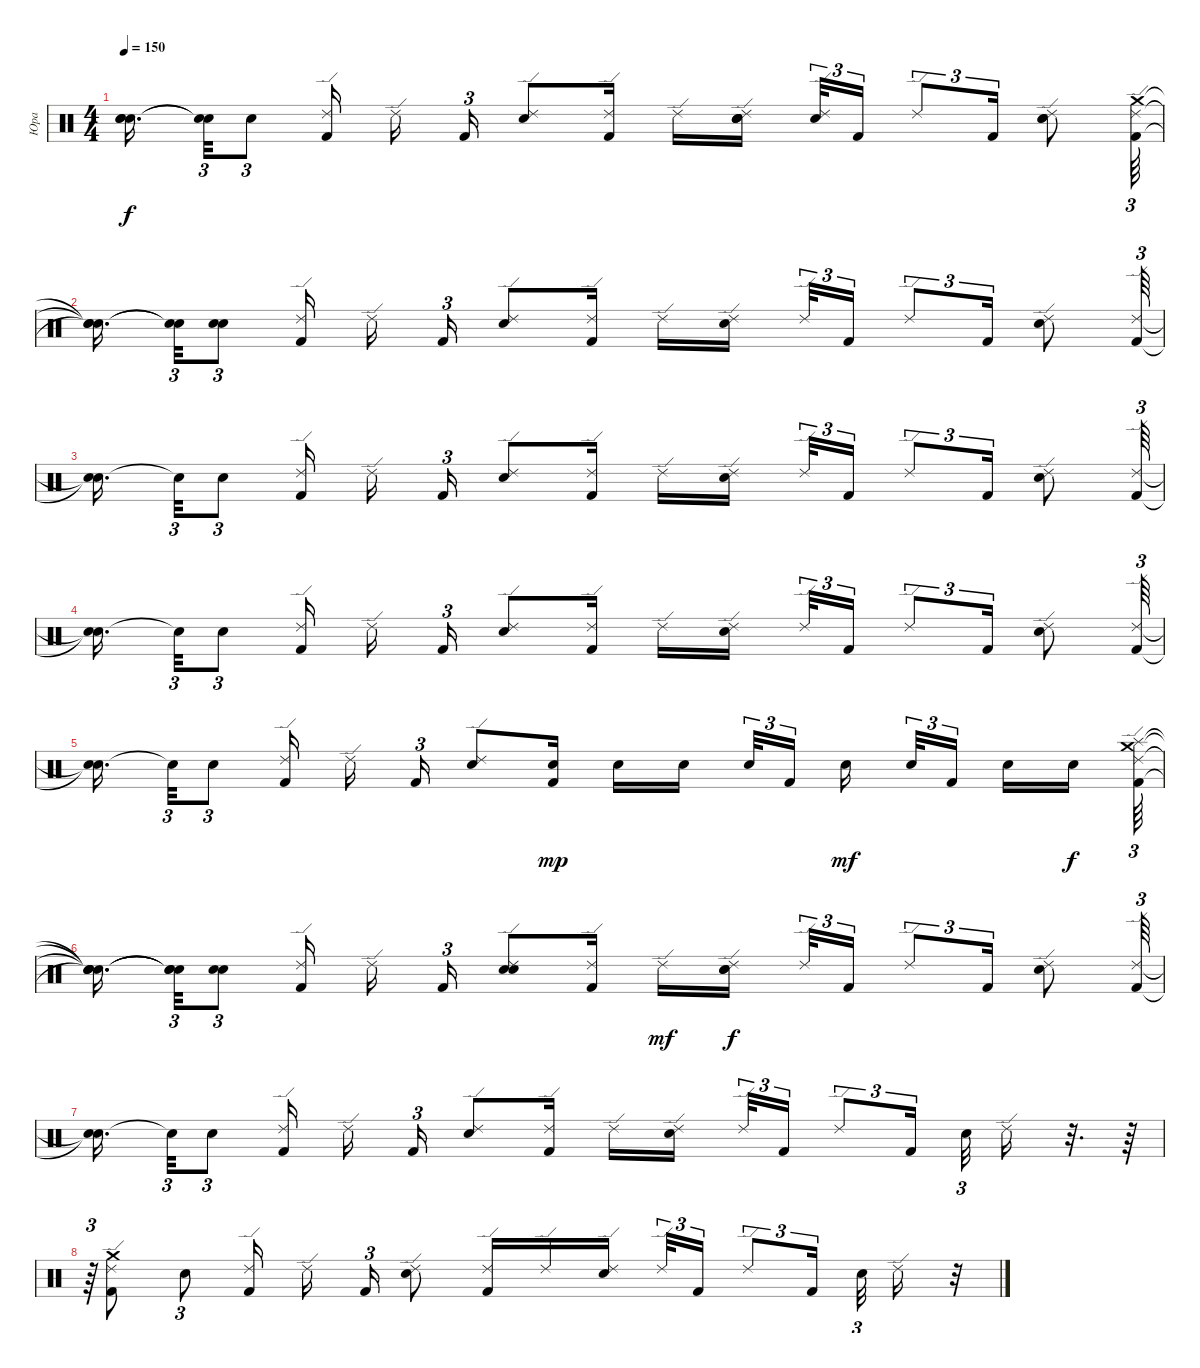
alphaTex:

\track ("Юра" "Юра") {instrument percussion}
\staff {score}
\articulation defaults
\ts (4 4)
\tempo 150
\clef neutral
\ks c
("Snare (hit)"{t} "Snare (hit)"{t} "Snare (hit)"{t}).16{d dy f beam splitsecondary} ("Snare (hit)"{t} "Snare (hit)"{t}).32{tu (3 2)} "Electric Snare (hit)".8{tu (3 2)} ("Kick (hit) 2" "Ride (edge) 2").16 "Ride (edge) 2".16{beam splitsecondary} "Kick (hit) 2".16{tu (3 2)} ("Ride (edge) 2" "Electric Snare (hit)").8 ("Ride (edge) 2" "Kick (hit) 2").16 "Ride (edge) 2".16 ("Ride (edge) 2" "Electric Snare (hit)" "Electric Snare (hit)" "Electric Snare (hit)").16{beam splitsecondary} ("Ride (edge) 2" "Electric Snare (hit)").32{tu (3 2)} "Kick (hit) 2".16{tu (3 2)} "Ride (edge) 2".8{tu (3 2)} "Kick (hit) 2".16{tu (3 2)} ("Electric Snare (hit)" "Electric Snare (hit)" "Ride (edge) 2").8 ("Ride (edge) 2" "Kick (hit) 2" "Crash medium (hit)").64{tu (3 2)} |
("Snare (hit)"{t} "Snare (hit)"{t} "Snare (hit)"{t}).16{d beam splitsecondary} ("Snare (hit)"{t} "Snare (hit)"{t}).32{tu (3 2)} ("Electric Snare (hit)" "Electric Snare (hit)").8{tu (3 2)} ("Ride (edge) 2" "Kick (hit) 2").16 "Ride (edge) 2".16{beam splitsecondary} "Kick (hit) 2".16{tu (3 2)} ("Ride (edge) 2" "Electric Snare (hit)").8 ("Ride (edge) 2" "Kick (hit) 2").16 "Ride (edge) 2".16 ("Ride (edge) 2" "Electric Snare (hit)").16{beam splitsecondary} "Ride (edge) 2".32{tu (3 2)} "Kick (hit) 2".16{tu (3 2)} "Ride (edge) 2".8{tu (3 2)} "Kick (hit) 2".16{tu (3 2)} ("Ride (edge) 2" "Electric Snare (hit)").8 ("Ride (edge) 2" "Kick (hit) 2").64{tu (3 2)} |
("Snare (hit)"{t} "Snare (hit)"{t}).16{d beam splitsecondary} "Snare (hit)"{t}.32{tu (3 2)} "Electric Snare (hit)".8{tu (3 2)} ("Ride (edge) 2" "Kick (hit) 2").16 "Ride (edge) 2".16{beam splitsecondary} "Kick (hit) 2".16{tu (3 2)} ("Electric Snare (hit)" "Ride (edge) 2").8 ("Ride (edge) 2" "Kick (hit) 2").16 "Ride (edge) 2".16 ("Ride (edge) 2" "Electric Snare (hit)").16{beam splitsecondary} "Ride (edge) 2".32{tu (3 2)} "Kick (hit) 2".16{tu (3 2)} "Ride (edge) 2".8{tu (3 2)} "Kick (hit) 2".16{tu (3 2)} ("Ride (edge) 2" "Electric Snare (hit)").8 ("Kick (hit) 2" "Ride (edge) 2").64{tu (3 2)} |
("Snare (hit)"{t} "Snare (hit)"{t}).16{d beam splitsecondary} "Snare (hit)"{t}.32{tu (3 2)} "Electric Snare (hit)".8{tu (3 2)} ("Kick (hit) 2" "Ride (edge) 2").16 "Ride (edge) 2".16{beam splitsecondary} "Kick (hit) 2".16{tu (3 2)} ("Electric Snare (hit)" "Ride (edge) 2").8 ("Kick (hit) 2" "Ride (edge) 2").16 "Ride (edge) 2".16 ("Electric Snare (hit)" "Ride (edge) 2").16{beam splitsecondary} "Ride (edge) 2".32{tu (3 2)} "Kick (hit) 2".16{tu (3 2)} "Ride (edge) 2".8{tu (3 2)} "Kick (hit) 2".16{tu (3 2)} ("Electric Snare (hit)" "Ride (edge) 2").8 ("Kick (hit) 2" "Ride (edge) 2").64{tu (3 2)} |
("Snare (hit)"{t} "Snare (hit)"{t}).16{d beam splitsecondary} "Snare (hit)"{t}.32{tu (3 2)} "Electric Snare (hit)".8{tu (3 2)} ("Kick (hit) 2" "Ride (edge) 2").16 "Ride (edge) 2".16{beam splitsecondary} "Kick (hit) 2".16{tu (3 2)} ("Electric Snare (hit)" "Ride (edge) 2").8 ("Electric Snare (hit)" "Kick (hit) 2").16{dy mp} "Electric Snare (hit)".16 "Electric Snare (hit)".16{beam splitsecondary} "Electric Snare (hit)".32{tu (3 2)} "Kick (hit) 2".16{tu (3 2) beam splitsecondary} "Electric Snare (hit)".16{dy mf} "Electric Snare (hit)".32{tu (3 2)} "Kick (hit) 2".16{tu (3 2) beam splitsecondary} "Electric Snare (hit)".16 "Electric Snare (hit)".16{dy f beam splitsecondary} ("Kick (hit) 2" "Splash (hit)" "Ride (edge) 2" "Crash medium (hit)").64{tu (3 2)} |
("Snare (hit)"{t} "Snare (hit)"{t} "Snare (hit)"{t} "Snare (hit)"{t}).16{d beam splitsecondary} ("Snare (hit)"{t} "Snare (hit)"{t} "Snare (hit)"{t}).32{tu (3 2)} ("Electric Snare (hit)" "Electric Snare (hit)").8{tu (3 2)} ("Kick (hit) 2" "Ride (edge) 2").16 "Ride (edge) 2".16{beam splitsecondary} "Kick (hit) 2".16{tu (3 2)} ("Electric Snare (hit)" "Electric Snare (hit)" "Ride (edge) 2").8 ("Kick (hit) 2" "Ride (edge) 2").16 "Ride (edge) 2".16{dy mf} ("Electric Snare (hit)" "Electric Snare (hit)" "Ride (edge) 2").16{dy f beam splitsecondary} "Ride (edge) 2".32{tu (3 2)} "Kick (hit) 2".16{tu (3 2)} "Ride (edge) 2".8{tu (3 2)} "Kick (hit) 2".16{tu (3 2)} ("Electric Snare (hit)" "Ride (edge) 2").8 ("Ride (edge) 2" "Kick (hit) 2").64{tu (3 2)} |
("Snare (hit)"{t} "Snare (hit)"{t}).16{d beam splitsecondary} "Snare (hit)"{t}.32{tu (3 2)} "Electric Snare (hit)".8{tu (3 2)} ("Ride (edge) 2" "Kick (hit) 2").16 "Ride (edge) 2".16{beam splitsecondary} "Kick (hit) 2".16{tu (3 2)} ("Ride (edge) 2" "Electric Snare (hit)").8 ("Ride (edge) 2" "Kick (hit) 2").16 "Ride (edge) 2".16 ("Ride (edge) 2" "Electric Snare (hit)").16{beam splitsecondary} "Ride (edge) 2".32{tu (3 2)} "Kick (hit) 2".16{tu (3 2)} "Ride (edge) 2".8{tu (3 2)} "Kick (hit) 2".16{tu (3 2) beam splitsecondary} "Electric Snare (hit)".32{tu (3 2)} "Ride (edge) 2".16 r.32{d} r.64 |
r.64{tu (3 2)} ("Ride (edge) 2" "Crash medium (hit)" "Kick (hit) 2").8 "Electric Snare (hit)".8{tu (3 2)} ("Kick (hit) 2" "Ride (edge) 2").16 "Ride (edge) 2".16{beam splitsecondary} "Kick (hit) 2".16{tu (3 2)} ("Ride (edge) 2" "Electric Snare (hit)").8 ("Ride (edge) 2" "Kick (hit) 2").16 "Ride (edge) 2".16 ("Ride (edge) 2" "Electric Snare (hit)").16{beam splitsecondary} "Ride (edge) 2".32{tu (3 2)} "Kick (hit) 2".16{tu (3 2)} "Ride (edge) 2".8{tu (3 2)} "Kick (hit) 2".16{tu (3 2) beam splitsecondary} "Electric Snare (hit)".32{tu (3 2)} "Ride (edge) 2".16 r.32
